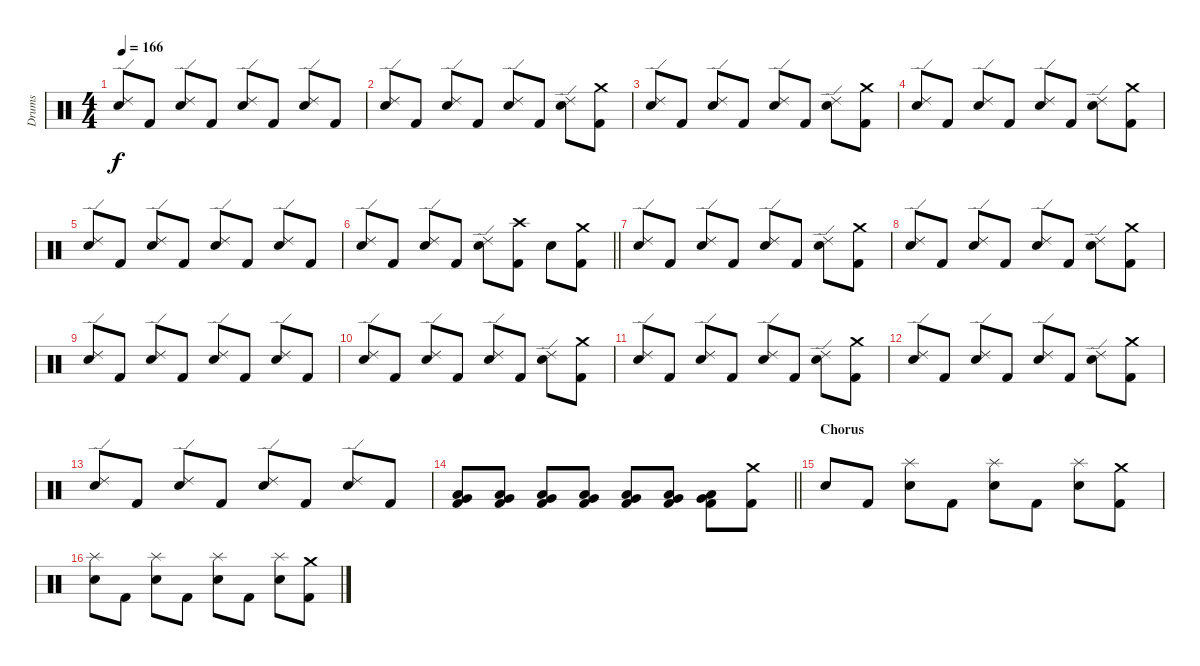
\track ("Drums" "Drums") {instrument percussion}
\staff {score}
\articulation defaults
\ts (4 4)
\tempo 166
\clef neutral
\ks c
("Snare (hit) 2" "Ride (edge) 2").8{dy f} "Kick (hit) 2".8 ("Snare (hit) 2" "Ride (edge) 2").8 "Kick (hit) 2".8 ("Snare (hit) 2" "Ride (edge) 2").8 "Kick (hit) 2".8 ("Snare (hit) 2" "Ride (edge) 2").8 "Kick (hit) 2".8 |
("Snare (hit) 2" "Ride (edge) 2").8 "Kick (hit) 2".8 ("Snare (hit) 2" "Ride (edge) 2").8 "Kick (hit) 2".8 ("Snare (hit) 2" "Ride (edge) 2").8 "Kick (hit) 2".8 ("Snare (hit) 2" "Ride (edge) 2").8 ("Kick (hit) 2" "Crash medium (hit)").8 |
("Snare (hit) 2" "Ride (edge) 2").8 "Kick (hit) 2".8 ("Snare (hit) 2" "Ride (edge) 2").8 "Kick (hit) 2".8 ("Snare (hit) 2" "Ride (edge) 2").8 "Kick (hit) 2".8 ("Snare (hit) 2" "Ride (edge) 2").8 ("Kick (hit) 2" "Crash medium (hit)").8 |
("Snare (hit) 2" "Ride (edge) 2").8 "Kick (hit) 2".8 ("Snare (hit) 2" "Ride (edge) 2").8 "Kick (hit) 2".8 ("Snare (hit) 2" "Ride (edge) 2").8 "Kick (hit) 2".8 ("Snare (hit) 2" "Ride (edge) 2").8 ("Kick (hit) 2" "Crash medium (hit)").8 |
("Snare (hit) 2" "Ride (edge) 2").8 "Kick (hit) 2".8 ("Snare (hit) 2" "Ride (edge) 2").8 "Kick (hit) 2".8 ("Snare (hit) 2" "Ride (edge) 2").8 "Kick (hit) 2".8 ("Snare (hit) 2" "Ride (edge) 2").8 "Kick (hit) 2".8 |
\barLineRight lightlight
("Snare (hit) 2" "Ride (edge) 2").8 "Kick (hit) 2".8 ("Snare (hit) 2" "Ride (edge) 2").8 "Kick (hit) 2".8 ("Snare (hit) 2" "Ride (edge) 2").8 ("Kick (hit) 2" "Crash high (hit)").8 "Snare (hit) 2".8 ("Kick (hit) 2" "Crash medium (hit)").8 |
\section ("" "")
("Snare (hit) 2" "Ride (edge) 2").8 "Kick (hit) 2".8 ("Snare (hit) 2" "Ride (edge) 2").8 "Kick (hit) 2".8 ("Snare (hit) 2" "Ride (edge) 2").8 "Kick (hit) 2".8 ("Snare (hit) 2" "Ride (edge) 2").8 ("Kick (hit) 2" "Crash medium (hit)").8 |
("Snare (hit) 2" "Ride (edge) 2").8 "Kick (hit) 2".8 ("Snare (hit) 2" "Ride (edge) 2").8 "Kick (hit) 2".8 ("Snare (hit) 2" "Ride (edge) 2").8 "Kick (hit) 2".8 ("Snare (hit) 2" "Ride (edge) 2").8 ("Kick (hit) 2" "Crash medium (hit)").8 |
("Snare (hit) 2" "Ride (edge) 2").8 "Kick (hit) 2".8 ("Snare (hit) 2" "Ride (edge) 2").8 "Kick (hit) 2".8 ("Snare (hit) 2" "Ride (edge) 2").8 "Kick (hit) 2".8 ("Snare (hit) 2" "Ride (edge) 2").8 "Kick (hit) 2".8 |
("Snare (hit) 2" "Ride (edge) 2").8 "Kick (hit) 2".8 ("Snare (hit) 2" "Ride (edge) 2").8 "Kick (hit) 2".8 ("Snare (hit) 2" "Ride (edge) 2").8 "Kick (hit) 2".8 ("Snare (hit) 2" "Ride (edge) 2").8 ("Kick (hit) 2" "Crash medium (hit)").8 |
("Snare (hit) 2" "Ride (edge) 2").8 "Kick (hit) 2".8 ("Snare (hit) 2" "Ride (edge) 2").8 "Kick (hit) 2".8 ("Snare (hit) 2" "Ride (edge) 2").8 "Kick (hit) 2".8 ("Snare (hit) 2" "Ride (edge) 2").8 ("Kick (hit) 2" "Crash medium (hit)").8 |
("Snare (hit) 2" "Ride (edge) 2").8 "Kick (hit) 2".8 ("Snare (hit) 2" "Ride (edge) 2").8 "Kick (hit) 2".8 ("Snare (hit) 2" "Ride (edge) 2").8 "Kick (hit) 2".8 ("Snare (hit) 2" "Ride (edge) 2").8 ("Kick (hit) 2" "Crash medium (hit)").8 |
("Snare (hit) 2" "Ride (edge) 2").8 "Kick (hit) 2".8 ("Snare (hit) 2" "Ride (edge) 2").8 "Kick (hit) 2".8 ("Snare (hit) 2" "Ride (edge) 2").8 "Kick (hit) 2".8 ("Snare (hit) 2" "Ride (edge) 2").8 "Kick (hit) 2".8 |
\barLineRight lightlight
("Kick (hit) 2" "Low Tom (hit)" "Very Low Tom (hit)").8 ("Kick (hit) 2" "Low Tom (hit)" "Very Low Tom (hit)").8 ("Kick (hit) 2" "Low Tom (hit)" "Very Low Tom (hit)").8 ("Kick (hit) 2" "Low Tom (hit)" "Very Low Tom (hit)").8 ("Kick (hit) 2" "Very Low Tom (hit)" "Low Floor Tom (hit)").8 ("Kick (hit) 2" "Very Low Tom (hit)" "Low Floor Tom (hit)").8 ("Kick (hit) 2" "Very Low Tom (hit)" "Low Floor Tom (hit)").8 ("Kick (hit) 2" "Crash medium (hit)").8 |
\section ("" "Chorus")
"Snare (hit) 2".8 "Kick (hit) 2".8 ("Snare (hit) 2" "Splash (hit)").8 "Kick (hit) 2".8 ("Snare (hit) 2" "Splash (hit)").8 "Kick (hit) 2".8 ("Snare (hit) 2" "Splash (hit)").8 ("Kick (hit) 2" "Crash medium (hit)").8 |
("Snare (hit) 2" "Splash (hit)").8 "Kick (hit) 2".8 ("Snare (hit) 2" "Splash (hit)").8 "Kick (hit) 2".8 ("Snare (hit) 2" "Splash (hit)").8 "Kick (hit) 2".8 ("Snare (hit) 2" "Splash (hit)").8 ("Kick (hit) 2" "Crash medium (hit)").8
